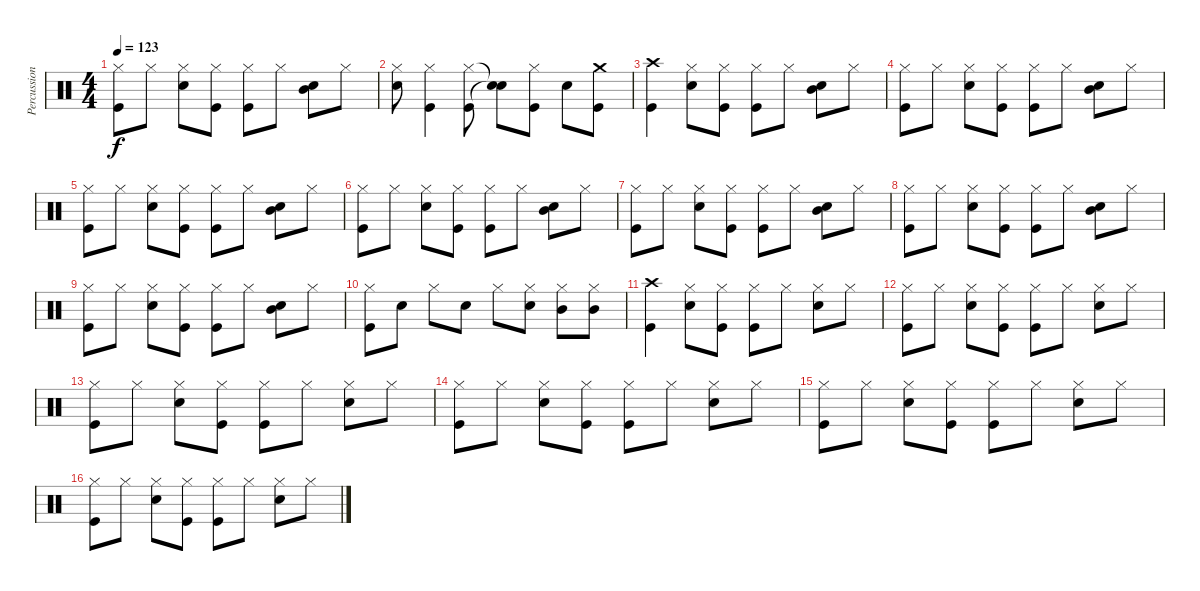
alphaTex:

\track ("Percussion" "Percussion") {instrument percussion}
\staff {score}
\articulation defaults
\ts (4 4)
\tempo 123
\clef neutral
\ks c
("Hi-Hat (closed)" "Kick (hit)").8{dy f} "Hi-Hat (closed)".8 ("Hi-Hat (closed)" "Snare (hit) 2").8 ("Hi-Hat (closed)" "Kick (hit)").8 ("Hi-Hat (closed)" "Kick (hit)").8 "Hi-Hat (closed)".8 ("Mid Tom (hit)" "Snare (hit) 2").8 "Hi-Hat (closed)".8 |
("Hi-Hat (closed)" "Snare (hit) 2").8 ("Hi-Hat (closed)" "Kick (hit)").4 ("Hi-Hat (closed)" "Kick (hit)").8 ("Snare (hit)"{t} "Snare (hit)"{t}).8 ("Hi-Hat (closed)" "Kick (hit)").8 "Snare (hit) 2".8 ("Crash medium (hit)" "Kick (hit)").8 |
("Crash high (hit)" "Kick (hit)").4 ("Hi-Hat (closed)" "Snare (hit) 2").8 ("Hi-Hat (closed)" "Kick (hit)").8 ("Hi-Hat (closed)" "Kick (hit)").8 "Hi-Hat (closed)".8 ("Mid Tom (hit)" "Snare (hit) 2").8 "Hi-Hat (closed)".8 |
("Hi-Hat (closed)" "Kick (hit)").8 "Hi-Hat (closed)".8 ("Hi-Hat (closed)" "Snare (hit) 2").8 ("Hi-Hat (closed)" "Kick (hit)").8 ("Hi-Hat (closed)" "Kick (hit)").8 "Hi-Hat (closed)".8 ("Mid Tom (hit)" "Snare (hit) 2").8 "Hi-Hat (closed)".8 |
("Hi-Hat (closed)" "Kick (hit)").8 "Hi-Hat (closed)".8 ("Hi-Hat (closed)" "Snare (hit) 2").8 ("Hi-Hat (closed)" "Kick (hit)").8 ("Hi-Hat (closed)" "Kick (hit)").8 "Hi-Hat (closed)".8 ("Mid Tom (hit)" "Snare (hit) 2").8 "Hi-Hat (closed)".8 |
("Hi-Hat (closed)" "Kick (hit)").8 "Hi-Hat (closed)".8 ("Hi-Hat (closed)" "Snare (hit) 2").8 ("Hi-Hat (closed)" "Kick (hit)").8 ("Hi-Hat (closed)" "Kick (hit)").8 "Hi-Hat (closed)".8 ("Mid Tom (hit)" "Snare (hit) 2").8 "Hi-Hat (closed)".8 |
("Hi-Hat (closed)" "Kick (hit)").8 "Hi-Hat (closed)".8 ("Hi-Hat (closed)" "Snare (hit) 2").8 ("Hi-Hat (closed)" "Kick (hit)").8 ("Hi-Hat (closed)" "Kick (hit)").8 "Hi-Hat (closed)".8 ("Mid Tom (hit)" "Snare (hit) 2").8 "Hi-Hat (closed)".8 |
("Hi-Hat (closed)" "Kick (hit)").8 "Hi-Hat (closed)".8 ("Hi-Hat (closed)" "Snare (hit) 2").8 ("Hi-Hat (closed)" "Kick (hit)").8 ("Hi-Hat (closed)" "Kick (hit)").8 "Hi-Hat (closed)".8 ("Mid Tom (hit)" "Snare (hit) 2").8 "Hi-Hat (closed)".8 |
("Hi-Hat (closed)" "Kick (hit)").8 "Hi-Hat (closed)".8 ("Hi-Hat (closed)" "Snare (hit) 2").8 ("Hi-Hat (closed)" "Kick (hit)").8 ("Hi-Hat (closed)" "Kick (hit)").8 "Hi-Hat (closed)".8 ("Mid Tom (hit)" "Snare (hit) 2").8 "Hi-Hat (closed)".8 |
("Hi-Hat (closed)" "Kick (hit)").8 "Snare (hit) 2".8 "Hi-Hat (closed)".8 "Snare (hit) 2".8 "Hi-Hat (closed)".8 ("Hi-Hat (closed)" "Snare (hit) 2").8 ("Hi-Hat (closed)" "Mid Tom (hit)").8 ("Hi-Hat (closed)" "Mid Tom (hit)").8 |
("Crash high (hit)" "Kick (hit)").4 ("Hi-Hat (closed)" "Snare (hit) 2").8 ("Hi-Hat (closed)" "Kick (hit)").8 ("Hi-Hat (closed)" "Kick (hit)").8 "Hi-Hat (closed)".8 ("Hi-Hat (closed)" "Snare (hit) 2").8 "Hi-Hat (closed)".8 |
("Hi-Hat (closed)" "Kick (hit)").8 "Hi-Hat (closed)".8 ("Hi-Hat (closed)" "Snare (hit) 2").8 ("Hi-Hat (closed)" "Kick (hit)").8 ("Hi-Hat (closed)" "Kick (hit)").8 "Hi-Hat (closed)".8 ("Hi-Hat (closed)" "Snare (hit) 2").8 "Hi-Hat (closed)".8 |
("Hi-Hat (closed)" "Kick (hit)").8 "Hi-Hat (closed)".8 ("Hi-Hat (closed)" "Snare (hit) 2").8 ("Hi-Hat (closed)" "Kick (hit)").8 ("Hi-Hat (closed)" "Kick (hit)").8 "Hi-Hat (closed)".8 ("Hi-Hat (closed)" "Snare (hit) 2").8 "Hi-Hat (closed)".8 |
("Hi-Hat (closed)" "Kick (hit)").8 "Hi-Hat (closed)".8 ("Hi-Hat (closed)" "Snare (hit) 2").8 ("Hi-Hat (closed)" "Kick (hit)").8 ("Hi-Hat (closed)" "Kick (hit)").8 "Hi-Hat (closed)".8 ("Hi-Hat (closed)" "Snare (hit) 2").8 "Hi-Hat (closed)".8 |
("Hi-Hat (closed)" "Kick (hit)").8 "Hi-Hat (closed)".8 ("Hi-Hat (closed)" "Snare (hit) 2").8 ("Hi-Hat (closed)" "Kick (hit)").8 ("Hi-Hat (closed)" "Kick (hit)").8 "Hi-Hat (closed)".8 ("Hi-Hat (closed)" "Snare (hit) 2").8 "Hi-Hat (closed)".8 |
("Hi-Hat (closed)" "Kick (hit)").8 "Hi-Hat (closed)".8 ("Hi-Hat (closed)" "Snare (hit) 2").8 ("Hi-Hat (closed)" "Kick (hit)").8 ("Hi-Hat (closed)" "Kick (hit)").8 "Hi-Hat (closed)".8 ("Hi-Hat (closed)" "Snare (hit) 2").8 "Hi-Hat (closed)".8
